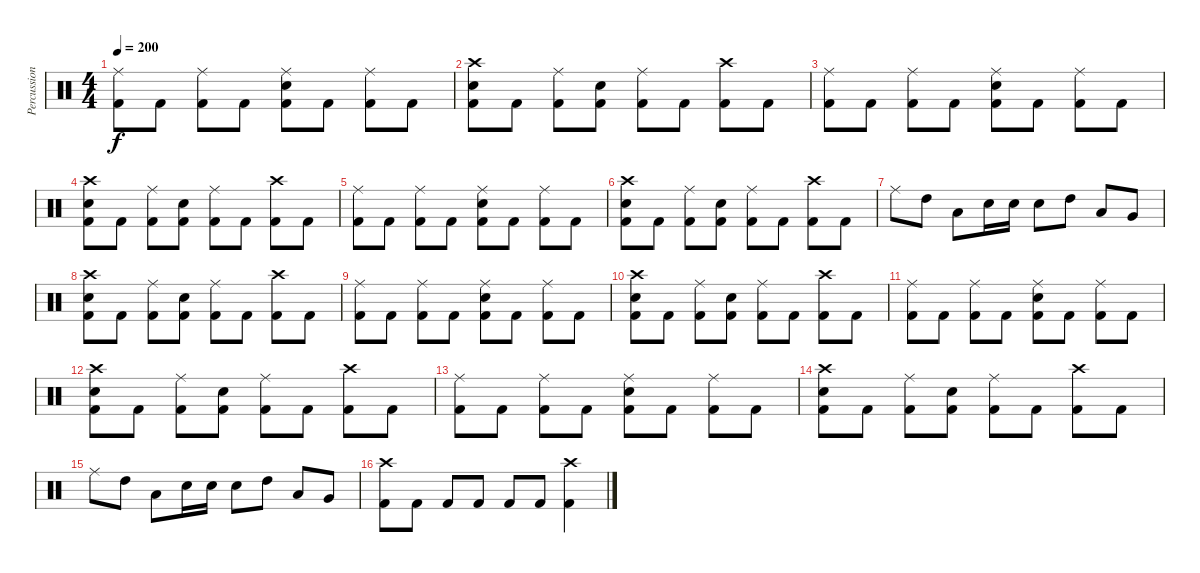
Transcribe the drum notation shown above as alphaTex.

\track ("Percussion" "Percussion") {instrument percussion}
\staff {score}
\articulation defaults
\ts (4 4)
\tempo 200
\clef neutral
\ks c
("Ride (middle)" "Kick (hit) 2").8{dy f} "Kick (hit) 2".8 ("Ride (middle)" "Kick (hit) 2").8 "Kick (hit) 2".8 ("Ride (middle)" "Snare (hit) 2" "Kick (hit) 2").8 "Kick (hit) 2".8 ("Ride (middle)" "Kick (hit) 2").8 "Kick (hit) 2".8 |
("Crash high (hit)" "Snare (hit) 2" "Kick (hit) 2").8 "Kick (hit) 2".8 ("Ride (middle)" "Kick (hit) 2").8 ("Snare (hit) 2" "Kick (hit) 2").8 ("Ride (middle)" "Kick (hit) 2").8 "Kick (hit) 2".8 ("Crash high (hit)" "Kick (hit) 2").8 "Kick (hit) 2".8 |
("Ride (middle)" "Kick (hit) 2").8 "Kick (hit) 2".8 ("Ride (middle)" "Kick (hit) 2").8 "Kick (hit) 2".8 ("Ride (middle)" "Snare (hit) 2" "Kick (hit) 2").8 "Kick (hit) 2".8 ("Ride (middle)" "Kick (hit) 2").8 "Kick (hit) 2".8 |
("Crash high (hit)" "Snare (hit) 2" "Kick (hit) 2").8 "Kick (hit) 2".8 ("Ride (middle)" "Kick (hit) 2").8 ("Snare (hit) 2" "Kick (hit) 2").8 ("Ride (middle)" "Kick (hit) 2").8 "Kick (hit) 2".8 ("Crash high (hit)" "Kick (hit) 2").8 "Kick (hit) 2".8 |
("Ride (middle)" "Kick (hit) 2").8 "Kick (hit) 2".8 ("Ride (middle)" "Kick (hit) 2").8 "Kick (hit) 2".8 ("Ride (middle)" "Snare (hit) 2" "Kick (hit) 2").8 "Kick (hit) 2".8 ("Ride (middle)" "Kick (hit) 2").8 "Kick (hit) 2".8 |
("Crash high (hit)" "Snare (hit) 2" "Kick (hit) 2").8 "Kick (hit) 2".8 ("Ride (middle)" "Kick (hit) 2").8 ("Snare (hit) 2" "Kick (hit) 2").8 ("Ride (middle)" "Kick (hit) 2").8 "Kick (hit) 2".8 ("Crash high (hit)" "Kick (hit) 2").8 "Kick (hit) 2".8 |
"Ride (middle)".8 "High Tom (hit)".8 "Low Tom (hit)".8 "Snare (hit) 2".16 "Snare (hit) 2".16 "Snare (hit) 2".8 "High Tom (hit)".8 "Low Tom (hit)".8 "Very Low Tom (hit)".8 |
("Crash high (hit)" "Snare (hit) 2" "Kick (hit) 2").8 "Kick (hit) 2".8 ("Ride (middle)" "Kick (hit) 2").8 ("Snare (hit) 2" "Kick (hit) 2").8 ("Ride (middle)" "Kick (hit) 2").8 "Kick (hit) 2".8 ("Crash high (hit)" "Kick (hit) 2").8 "Kick (hit) 2".8 |
("Ride (middle)" "Kick (hit) 2").8 "Kick (hit) 2".8 ("Ride (middle)" "Kick (hit) 2").8 "Kick (hit) 2".8 ("Ride (middle)" "Snare (hit) 2" "Kick (hit) 2").8 "Kick (hit) 2".8 ("Ride (middle)" "Kick (hit) 2").8 "Kick (hit) 2".8 |
("Crash high (hit)" "Snare (hit) 2" "Kick (hit) 2").8 "Kick (hit) 2".8 ("Ride (middle)" "Kick (hit) 2").8 ("Snare (hit) 2" "Kick (hit) 2").8 ("Ride (middle)" "Kick (hit) 2").8 "Kick (hit) 2".8 ("Crash high (hit)" "Kick (hit) 2").8 "Kick (hit) 2".8 |
("Ride (middle)" "Kick (hit) 2").8 "Kick (hit) 2".8 ("Ride (middle)" "Kick (hit) 2").8 "Kick (hit) 2".8 ("Ride (middle)" "Snare (hit) 2" "Kick (hit) 2").8 "Kick (hit) 2".8 ("Ride (middle)" "Kick (hit) 2").8 "Kick (hit) 2".8 |
("Crash high (hit)" "Snare (hit) 2" "Kick (hit) 2").8 "Kick (hit) 2".8 ("Ride (middle)" "Kick (hit) 2").8 ("Snare (hit) 2" "Kick (hit) 2").8 ("Ride (middle)" "Kick (hit) 2").8 "Kick (hit) 2".8 ("Crash high (hit)" "Kick (hit) 2").8 "Kick (hit) 2".8 |
("Ride (middle)" "Kick (hit) 2").8 "Kick (hit) 2".8 ("Ride (middle)" "Kick (hit) 2").8 "Kick (hit) 2".8 ("Ride (middle)" "Snare (hit) 2" "Kick (hit) 2").8 "Kick (hit) 2".8 ("Ride (middle)" "Kick (hit) 2").8 "Kick (hit) 2".8 |
("Crash high (hit)" "Snare (hit) 2" "Kick (hit) 2").8 "Kick (hit) 2".8 ("Ride (middle)" "Kick (hit) 2").8 ("Snare (hit) 2" "Kick (hit) 2").8 ("Ride (middle)" "Kick (hit) 2").8 "Kick (hit) 2".8 ("Crash high (hit)" "Kick (hit) 2").8 "Kick (hit) 2".8 |
"Ride (middle)".8 "High Tom (hit)".8 "Low Tom (hit)".8 "Snare (hit) 2".16 "Snare (hit) 2".16 "Snare (hit) 2".8 "High Tom (hit)".8 "Low Tom (hit)".8 "Very Low Tom (hit)".8 |
("Crash high (hit)" "Kick (hit) 2").8 "Kick (hit) 2".8 "Kick (hit) 2".8 "Kick (hit) 2".8 "Kick (hit) 2".8 "Kick (hit) 2".8 ("Crash high (hit)" "Kick (hit) 2").4
